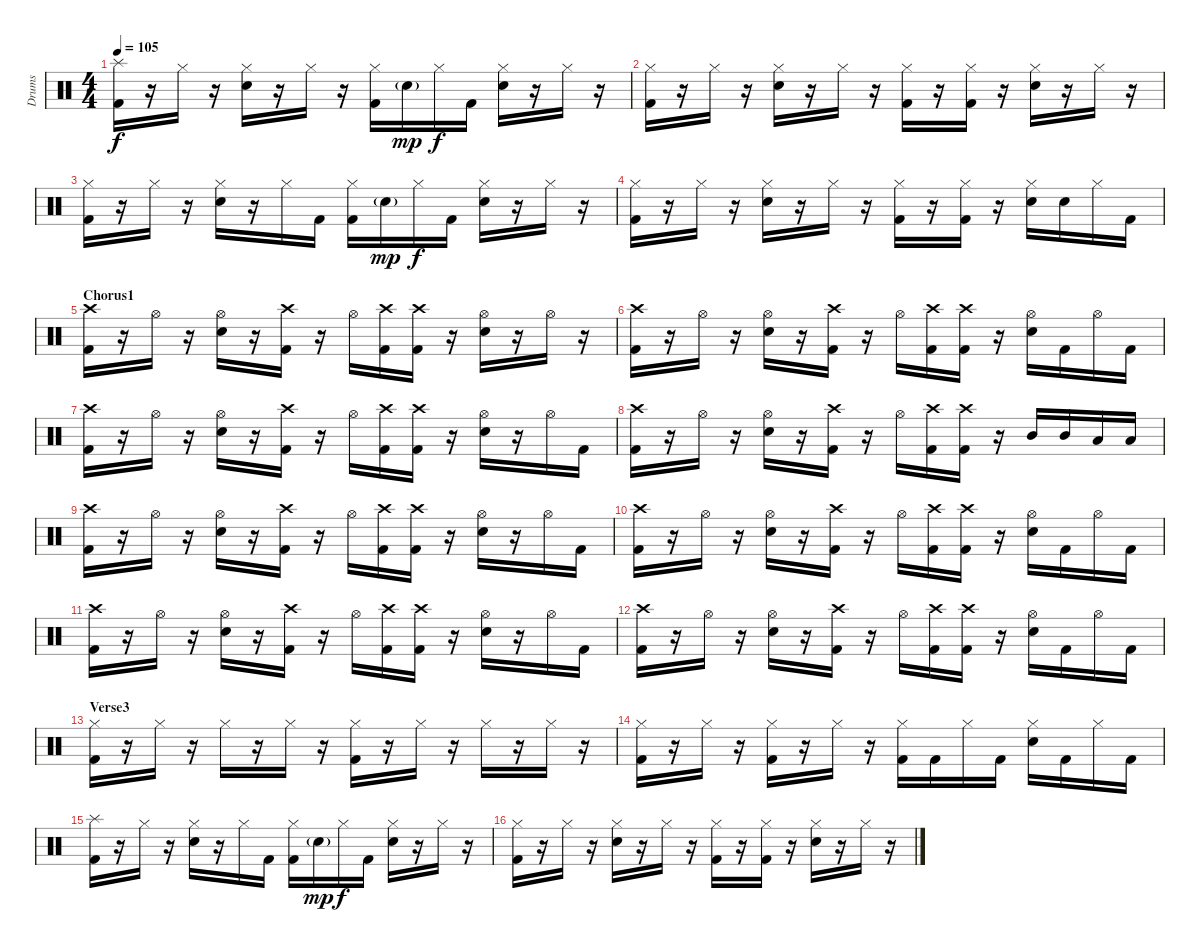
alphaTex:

\track ("Drums" "Drums") {instrument percussion}
\staff {score}
\articulation defaults
\ts (4 4)
\tempo 105
\clef neutral
\ks c
("Splash (hit)" "Kick (hit) 2").16{dy f} r.16 "Hi-Hat (closed)".16 r.16 ("Hi-Hat (closed)" "Snare (hit) 2").16 r.16 "Hi-Hat (closed)".16 r.16 ("Hi-Hat (closed)" "Kick (hit) 2").16 "Snare (hit) 2"{g}.16{dy mp} "Hi-Hat (closed)".16{dy f} "Kick (hit) 2".16 ("Hi-Hat (closed)" "Snare (hit) 2").16 r.16 "Hi-Hat (closed)".16 r.16 |
("Hi-Hat (closed)" "Kick (hit) 2").16 r.16 "Hi-Hat (closed)".16 r.16 ("Hi-Hat (closed)" "Snare (hit) 2").16 r.16 "Hi-Hat (closed)".16 r.16 ("Hi-Hat (closed)" "Kick (hit) 2").16 r.16 ("Hi-Hat (closed)" "Kick (hit) 2").16 r.16 ("Hi-Hat (closed)" "Snare (hit) 2").16 r.16 "Hi-Hat (closed)".16 r.16 |
("Hi-Hat (closed)" "Kick (hit) 2").16 r.16 "Hi-Hat (closed)".16 r.16 ("Hi-Hat (closed)" "Snare (hit) 2").16 r.16 "Hi-Hat (closed)".16 "Kick (hit) 2".16 ("Hi-Hat (closed)" "Kick (hit) 2").16 "Snare (hit) 2"{g}.16{dy mp} "Hi-Hat (closed)".16{dy f} "Kick (hit) 2".16 ("Hi-Hat (closed)" "Snare (hit) 2").16 r.16 "Hi-Hat (closed)".16 r.16 |
("Hi-Hat (closed)" "Kick (hit) 2").16 r.16 "Hi-Hat (closed)".16 r.16 ("Hi-Hat (closed)" "Snare (hit) 2").16 r.16 "Hi-Hat (closed)".16 r.16 ("Hi-Hat (closed)" "Kick (hit) 2").16 r.16 ("Hi-Hat (closed)" "Kick (hit) 2").16 r.16 ("Hi-Hat (closed)" "Snare (hit) 2").16 "Snare (hit) 2".16 "Hi-Hat (closed)".16 "Kick (hit) 2".16 |
\section ("" "Chorus1")
("Crash high (hit)" "Kick (hit) 2").16 r.16 "Hi-Hat (open)".16 r.16 ("Hi-Hat (open)" "Snare (hit) 2").16 r.16 ("Crash high (hit)" "Kick (hit) 2").16 r.16 "Hi-Hat (open)".16 ("Crash high (hit)" "Kick (hit) 2").16 ("Crash high (hit)" "Kick (hit) 2").16 r.16 ("Hi-Hat (open)" "Snare (hit) 2").16 r.16 "Hi-Hat (open)".16 r.16 |
("Crash high (hit)" "Kick (hit) 2").16 r.16 "Hi-Hat (open)".16 r.16 ("Hi-Hat (open)" "Snare (hit) 2").16 r.16 ("Crash high (hit)" "Kick (hit) 2").16 r.16 "Hi-Hat (open)".16 ("Crash high (hit)" "Kick (hit) 2").16 ("Crash high (hit)" "Kick (hit) 2").16 r.16 ("Hi-Hat (open)" "Snare (hit) 2").16 "Kick (hit) 2".16 "Hi-Hat (open)".16 "Kick (hit) 2".16 |
("Crash high (hit)" "Kick (hit) 2").16 r.16 "Hi-Hat (open)".16 r.16 ("Hi-Hat (open)" "Snare (hit) 2").16 r.16 ("Crash high (hit)" "Kick (hit) 2").16 r.16 "Hi-Hat (open)".16 ("Crash high (hit)" "Kick (hit) 2").16 ("Crash high (hit)" "Kick (hit) 2").16 r.16 ("Hi-Hat (open)" "Snare (hit) 2").16 r.16 "Hi-Hat (open)".16 "Kick (hit) 2".16 |
("Crash high (hit)" "Kick (hit) 2").16 r.16 "Hi-Hat (open)".16 r.16 ("Hi-Hat (open)" "Snare (hit) 2").16 r.16 ("Crash high (hit)" "Kick (hit) 2").16 r.16 "Hi-Hat (open)".16 ("Crash high (hit)" "Kick (hit) 2").16 ("Crash high (hit)" "Kick (hit) 2").16 r.16 "Mid Tom (hit)".16 "Mid Tom (hit)".16 "Low Tom (hit)".16 "Low Tom (hit)".16 |
("Crash high (hit)" "Kick (hit) 2").16 r.16 "Hi-Hat (open)".16 r.16 ("Hi-Hat (open)" "Snare (hit) 2").16 r.16 ("Crash high (hit)" "Kick (hit) 2").16 r.16 "Hi-Hat (open)".16 ("Crash high (hit)" "Kick (hit) 2").16 ("Crash high (hit)" "Kick (hit) 2").16 r.16 ("Hi-Hat (open)" "Snare (hit) 2").16 r.16 "Hi-Hat (open)".16 "Kick (hit) 2".16 |
("Crash high (hit)" "Kick (hit) 2").16 r.16 "Hi-Hat (open)".16 r.16 ("Hi-Hat (open)" "Snare (hit) 2").16 r.16 ("Crash high (hit)" "Kick (hit) 2").16 r.16 "Hi-Hat (open)".16 ("Crash high (hit)" "Kick (hit) 2").16 ("Crash high (hit)" "Kick (hit) 2").16 r.16 ("Hi-Hat (open)" "Snare (hit) 2").16 "Kick (hit) 2".16 "Hi-Hat (open)".16 "Kick (hit) 2".16 |
("Crash high (hit)" "Kick (hit) 2").16 r.16 "Hi-Hat (open)".16 r.16 ("Hi-Hat (open)" "Snare (hit) 2").16 r.16 ("Crash high (hit)" "Kick (hit) 2").16 r.16 "Hi-Hat (open)".16 ("Crash high (hit)" "Kick (hit) 2").16 ("Crash high (hit)" "Kick (hit) 2").16 r.16 ("Hi-Hat (open)" "Snare (hit) 2").16 r.16 "Hi-Hat (open)".16 "Kick (hit) 2".16 |
("Crash high (hit)" "Kick (hit) 2").16 r.16 "Hi-Hat (open)".16 r.16 ("Hi-Hat (open)" "Snare (hit) 2").16 r.16 ("Crash high (hit)" "Kick (hit) 2").16 r.16 "Hi-Hat (open)".16 ("Crash high (hit)" "Kick (hit) 2").16 ("Crash high (hit)" "Kick (hit) 2").16 r.16 ("Hi-Hat (open)" "Snare (hit) 2").16 "Kick (hit) 2".16 "Hi-Hat (open)".16 "Kick (hit) 2".16 |
\section ("" "Verse3")
("Hi-Hat (closed)" "Kick (hit) 2").16 r.16 "Hi-Hat (closed)".16 r.16 "Hi-Hat (closed)".16 r.16 "Hi-Hat (closed)".16 r.16 ("Hi-Hat (closed)" "Kick (hit) 2").16 r.16 "Hi-Hat (closed)".16 r.16 "Hi-Hat (closed)".16 r.16 "Hi-Hat (closed)".16 r.16 |
("Hi-Hat (closed)" "Kick (hit) 2").16 r.16 "Hi-Hat (closed)".16 r.16 ("Hi-Hat (closed)" "Kick (hit) 2").16 r.16 "Hi-Hat (closed)".16 r.16 ("Hi-Hat (closed)" "Kick (hit) 2").16 "Kick (hit) 2".16 "Hi-Hat (closed)".16 "Kick (hit) 2".16 ("Hi-Hat (closed)" "Snare (hit) 2").16 "Kick (hit) 2".16 "Hi-Hat (closed)".16 "Kick (hit) 2".16 |
("Splash (hit)" "Kick (hit) 2").16 r.16 "Hi-Hat (closed)".16 r.16 ("Hi-Hat (closed)" "Snare (hit) 2").16 r.16 "Hi-Hat (closed)".16 "Kick (hit) 2".16 ("Hi-Hat (closed)" "Kick (hit) 2").16 "Snare (hit) 2"{g}.16{dy mp} "Hi-Hat (closed)".16{dy f} "Kick (hit) 2".16 ("Hi-Hat (closed)" "Snare (hit) 2").16 r.16 "Hi-Hat (closed)".16 r.16 |
("Hi-Hat (closed)" "Kick (hit) 2").16 r.16 "Hi-Hat (closed)".16 r.16 ("Hi-Hat (closed)" "Snare (hit) 2").16 r.16 "Hi-Hat (closed)".16 r.16 ("Hi-Hat (closed)" "Kick (hit) 2").16 r.16 ("Hi-Hat (closed)" "Kick (hit) 2").16 r.16 ("Hi-Hat (closed)" "Snare (hit) 2").16 r.16 "Hi-Hat (closed)".16 r.16
